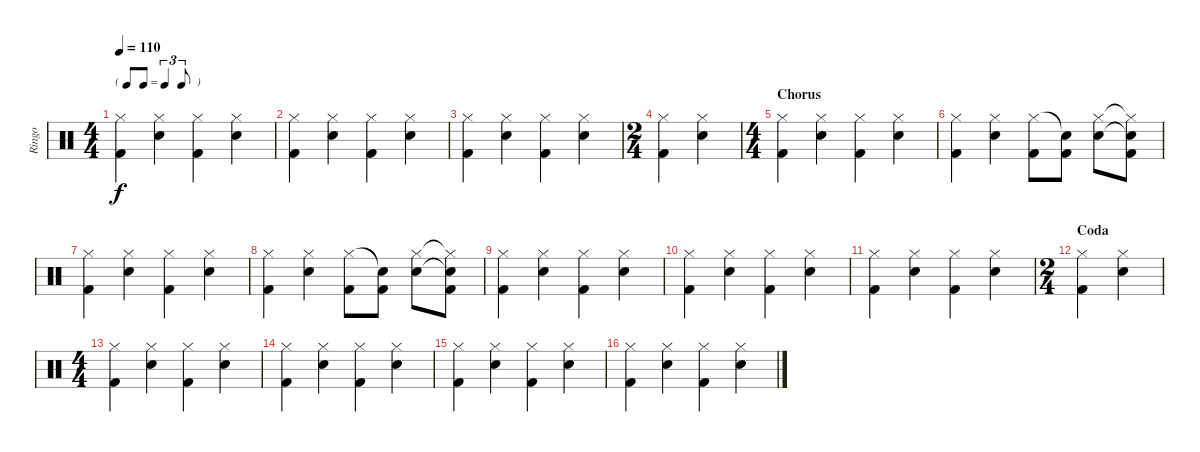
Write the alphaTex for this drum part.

\track ("Ringo" "Ringo") {instrument percussion}
\staff {score}
\articulation defaults
\ts (4 4)
\tf triplet8th
\tempo 110
\clef neutral
\ks c
("Hi-Hat (closed)" "Kick (hit) 2").4{dy f} ("Hi-Hat (closed)" "Snare (hit) 2").4 ("Hi-Hat (closed)" "Kick (hit) 2").4 ("Hi-Hat (closed)" "Snare (hit) 2").4 |
("Hi-Hat (closed)" "Kick (hit) 2").4 ("Hi-Hat (closed)" "Snare (hit) 2").4 ("Hi-Hat (closed)" "Kick (hit) 2").4 ("Hi-Hat (closed)" "Snare (hit) 2").4 |
("Hi-Hat (closed)" "Kick (hit) 2").4 ("Hi-Hat (closed)" "Snare (hit) 2").4 ("Hi-Hat (closed)" "Kick (hit) 2").4 ("Hi-Hat (closed)" "Snare (hit) 2").4 |
\ts (2 4)
("Hi-Hat (closed)" "Kick (hit) 2").4 ("Hi-Hat (closed)" "Snare (hit) 2").4 |
\ts (4 4)
\section ("" "Chorus")
("Hi-Hat (closed)" "Kick (hit) 2").4 ("Hi-Hat (closed)" "Snare (hit) 2").4 ("Hi-Hat (closed)" "Kick (hit) 2").4 ("Hi-Hat (closed)" "Snare (hit) 2").4 |
("Hi-Hat (closed)" "Kick (hit) 2").4 ("Hi-Hat (closed)" "Snare (hit) 2").4 ("Hi-Hat (closed)" "Kick (hit) 2").8 ("Snare (hit)"{t} "Kick (hit) 2").8 ("Hi-Hat (closed)" "Snare (hit) 2").8 ("Hi-Hat (closed)"{t} "Snare (hit) 2"{t} "Kick (hit) 2").8 |
("Hi-Hat (closed)" "Kick (hit) 2").4 ("Hi-Hat (closed)" "Snare (hit) 2").4 ("Hi-Hat (closed)" "Kick (hit) 2").4 ("Hi-Hat (closed)" "Snare (hit) 2").4 |
("Hi-Hat (closed)" "Kick (hit) 2").4 ("Hi-Hat (closed)" "Snare (hit) 2").4 ("Hi-Hat (closed)" "Kick (hit) 2").8 ("Snare (hit)"{t} "Kick (hit) 2").8 ("Hi-Hat (closed)" "Snare (hit) 2").8 ("Hi-Hat (closed)"{t} "Snare (hit) 2"{t} "Kick (hit) 2").8 |
("Hi-Hat (closed)" "Kick (hit) 2").4 ("Hi-Hat (closed)" "Snare (hit) 2").4 ("Hi-Hat (closed)" "Kick (hit) 2").4 ("Hi-Hat (closed)" "Snare (hit) 2").4 |
("Hi-Hat (closed)" "Kick (hit) 2").4 ("Hi-Hat (closed)" "Snare (hit) 2").4 ("Hi-Hat (closed)" "Kick (hit) 2").4 ("Hi-Hat (closed)" "Snare (hit) 2").4 |
("Hi-Hat (closed)" "Kick (hit) 2").4 ("Hi-Hat (closed)" "Snare (hit) 2").4 ("Hi-Hat (closed)" "Kick (hit) 2").4 ("Hi-Hat (closed)" "Snare (hit) 2").4 |
\ts (2 4)
\section ("" "Coda")
("Hi-Hat (closed)" "Kick (hit) 2").4 ("Hi-Hat (closed)" "Snare (hit) 2").4 |
\ts (4 4)
("Hi-Hat (closed)" "Kick (hit) 2").4 ("Hi-Hat (closed)" "Snare (hit) 2").4 ("Hi-Hat (closed)" "Kick (hit) 2").4 ("Hi-Hat (closed)" "Snare (hit) 2").4 |
("Hi-Hat (closed)" "Kick (hit) 2").4 ("Hi-Hat (closed)" "Snare (hit) 2").4 ("Hi-Hat (closed)" "Kick (hit) 2").4 ("Hi-Hat (closed)" "Snare (hit) 2").4 |
("Hi-Hat (closed)" "Kick (hit) 2").4 ("Hi-Hat (closed)" "Snare (hit) 2").4 ("Hi-Hat (closed)" "Kick (hit) 2").4 ("Hi-Hat (closed)" "Snare (hit) 2").4 |
("Hi-Hat (closed)" "Kick (hit) 2").4 ("Hi-Hat (closed)" "Snare (hit) 2").4 ("Hi-Hat (closed)" "Kick (hit) 2").4 ("Hi-Hat (closed)" "Snare (hit) 2").4
